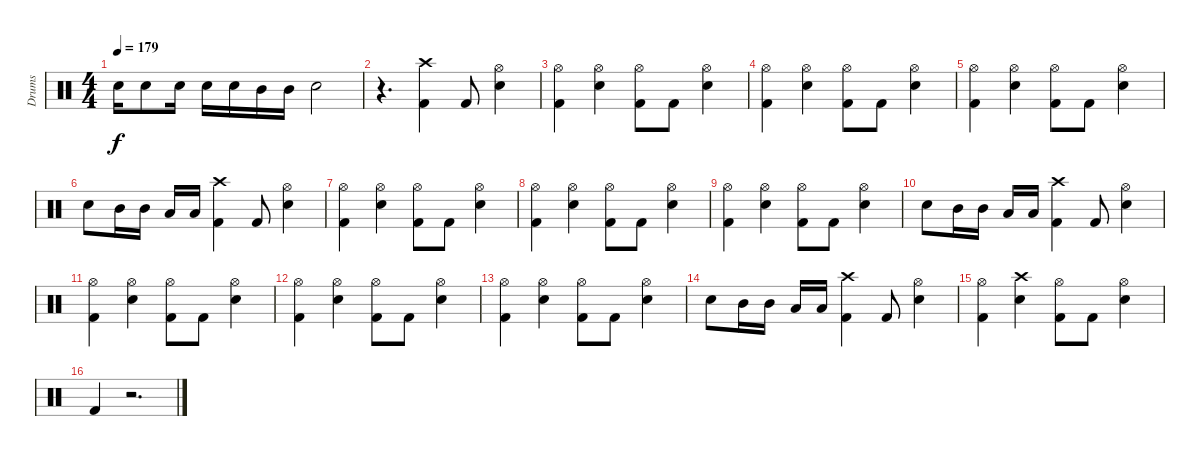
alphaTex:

\track ("Drums" "Drums") {instrument percussion}
\staff {score}
\articulation defaults
\ts (4 4)
\tempo 179
\clef neutral
\ks c "Snare (hit) 2".16{dy f} "Snare (hit) 2".8 "Snare (hit) 2".16 "Snare (hit) 2".16 "Snare (hit) 2".16 "Mid Tom (hit)".16 "Mid Tom (hit)".16 "Snare (hit) 2".2
|
r.4{d} ("Crash high (hit)" "Kick (hit) 2").4 "Kick (hit) 2".8 ("Hi-Hat (open)" "Snare (hit) 2").4 |
("Hi-Hat (open)" "Kick (hit) 2").4 ("Hi-Hat (open)" "Snare (hit) 2").4 ("Hi-Hat (open)" "Kick (hit) 2").8 "Kick (hit) 2".8 ("Hi-Hat (open)" "Snare (hit) 2").4 |
("Hi-Hat (open)" "Kick (hit) 2").4 ("Hi-Hat (open)" "Snare (hit) 2").4 ("Hi-Hat (open)" "Kick (hit) 2").8 "Kick (hit) 2".8 ("Hi-Hat (open)" "Snare (hit) 2").4 |
("Hi-Hat (open)" "Kick (hit) 2").4 ("Hi-Hat (open)" "Snare (hit) 2").4 ("Hi-Hat (open)" "Kick (hit) 2").8 "Kick (hit) 2".8 ("Hi-Hat (open)" "Snare (hit) 2").4 |
"Snare (hit) 2".8 "Mid Tom (hit)".16 "Mid Tom (hit)".16 "Low Tom (hit)".16 "Low Tom (hit)".16 ("Crash high (hit)" "Kick (hit) 2").4 "Kick (hit) 2".8 ("Hi-Hat (open)" "Snare (hit) 2").4 |
("Hi-Hat (open)" "Kick (hit) 2").4 ("Hi-Hat (open)" "Snare (hit) 2").4 ("Hi-Hat (open)" "Kick (hit) 2").8 "Kick (hit) 2".8 ("Hi-Hat (open)" "Snare (hit) 2").4 |
("Hi-Hat (open)" "Kick (hit) 2").4 ("Hi-Hat (open)" "Snare (hit) 2").4 ("Hi-Hat (open)" "Kick (hit) 2").8 "Kick (hit) 2".8 ("Hi-Hat (open)" "Snare (hit) 2").4 |
("Hi-Hat (open)" "Kick (hit) 2").4 ("Hi-Hat (open)" "Snare (hit) 2").4 ("Hi-Hat (open)" "Kick (hit) 2").8 "Kick (hit) 2".8 ("Hi-Hat (open)" "Snare (hit) 2").4 |
"Snare (hit) 2".8 "Mid Tom (hit)".16 "Mid Tom (hit)".16 "Low Tom (hit)".16 "Low Tom (hit)".16 ("Crash high (hit)" "Kick (hit) 2").4 "Kick (hit) 2".8 ("Hi-Hat (open)" "Snare (hit) 2").4 |
("Hi-Hat (open)" "Kick (hit) 2").4 ("Hi-Hat (open)" "Snare (hit) 2").4 ("Hi-Hat (open)" "Kick (hit) 2").8 "Kick (hit) 2".8 ("Hi-Hat (open)" "Snare (hit) 2").4 |
("Hi-Hat (open)" "Kick (hit) 2").4 ("Hi-Hat (open)" "Snare (hit) 2").4 ("Hi-Hat (open)" "Kick (hit) 2").8 "Kick (hit) 2".8 ("Hi-Hat (open)" "Snare (hit) 2").4 |
("Hi-Hat (open)" "Kick (hit) 2").4 ("Hi-Hat (open)" "Snare (hit) 2").4 ("Hi-Hat (open)" "Kick (hit) 2").8 "Kick (hit) 2".8 ("Hi-Hat (open)" "Snare (hit) 2").4 |
"Snare (hit) 2".8 "Mid Tom (hit)".16 "Mid Tom (hit)".16 "Low Tom (hit)".16 "Low Tom (hit)".16 ("Crash high (hit)" "Kick (hit) 2").4 "Kick (hit) 2".8 ("Hi-Hat (open)" "Snare (hit) 2").4 |
("Hi-Hat (open)" "Kick (hit) 2").4 ("Crash high (hit)" "Snare (hit) 2").4 ("Hi-Hat (open)" "Kick (hit) 2").8 "Kick (hit) 2".8 ("Hi-Hat (open)" "Snare (hit) 2").4 |
"Kick (hit) 2".4 r.2{d}
